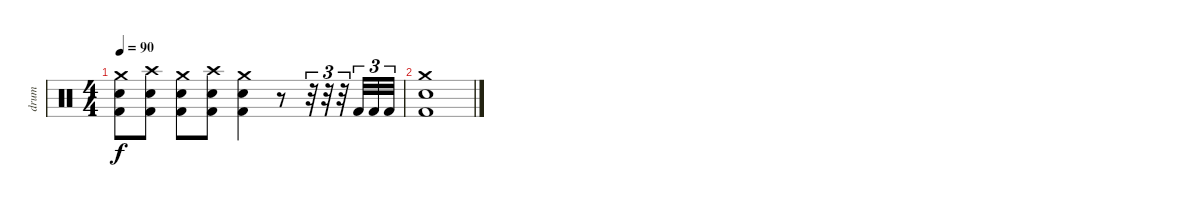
\track ("drum" "drum") {instrument percussion}
\staff {score}
\articulation defaults
\ts (4 4)
\tempo 90
\clef neutral
\ks c
("Crash medium (hit)" "Electric Snare (hit)" "Kick (hit) 2").8{dy f} ("Crash high (hit)" "Electric Snare (hit)" "Kick (hit) 2").8 ("Crash medium (hit)" "Electric Snare (hit)" "Kick (hit) 2").8 ("Crash high (hit)" "Electric Snare (hit)" "Kick (hit) 2").8 ("Crash medium (hit)" "Electric Snare (hit)" "Kick (hit) 2").4 r.8 r.32{tu (3 2)} r.32{tu (3 2)} r.32{tu (3 2)} "Kick (hit) 2".32{tu (3 2)} "Kick (hit) 2".32{tu (3 2)} "Kick (hit) 2".32{tu (3 2)} |
("Crash medium (hit)" "Electric Snare (hit)" "Kick (hit) 2").1
